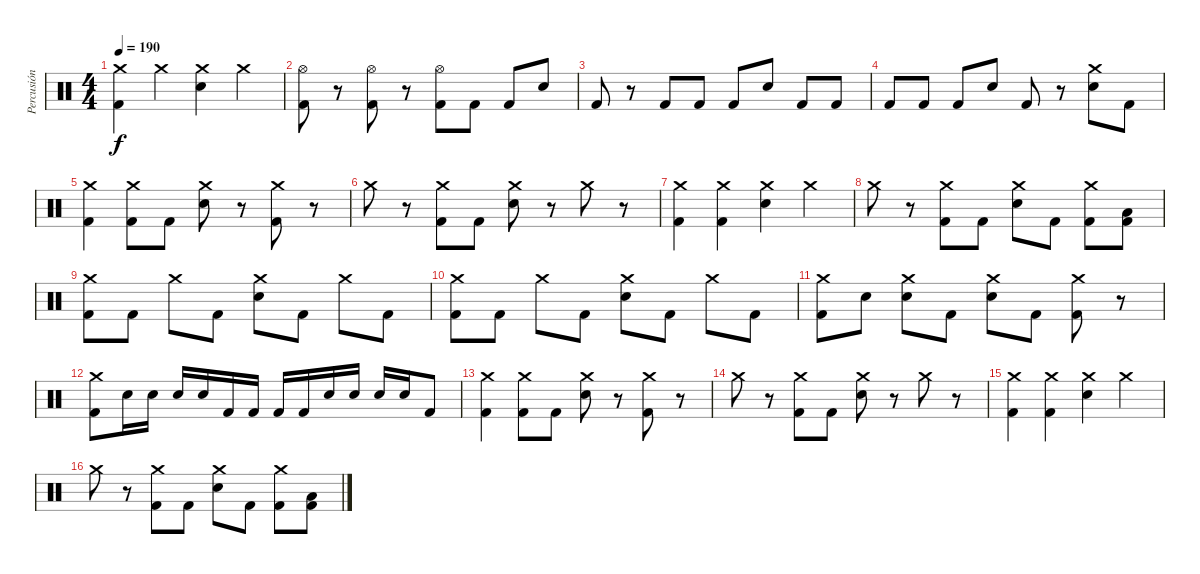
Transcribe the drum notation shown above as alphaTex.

\track ("Percusión" "Percusión") {instrument percussion}
\staff {score}
\articulation defaults
\ts (4 4)
\tempo 190
\clef neutral
\ks c
("Crash medium (hit)" "Kick (hit) 2").4{dy f} "Crash medium (hit)".4 ("Crash medium (hit)" "Electric Snare (hit)").4 "Crash medium (hit)".4 |
("Hi-Hat (open)" "Kick (hit) 2").8 r.8 ("Hi-Hat (open)" "Kick (hit) 2").8 r.8 ("Hi-Hat (open)" "Kick (hit) 2").8 "Kick (hit) 2".8 "Kick (hit) 2".8 "Electric Snare (hit)".8 |
"Kick (hit) 2".8 r.8 "Kick (hit) 2".8 "Kick (hit) 2".8 "Kick (hit) 2".8 "Electric Snare (hit)".8 "Kick (hit) 2".8 "Kick (hit) 2".8 |
"Kick (hit) 2".8 "Kick (hit) 2".8 "Kick (hit) 2".8 "Electric Snare (hit)".8 "Kick (hit) 2".8 r.8 ("Crash medium (hit)" "Electric Snare (hit)").8 "Kick (hit) 2".8 |
("Crash medium (hit)" "Kick (hit) 2").4 ("Crash medium (hit)" "Kick (hit) 2").8 "Kick (hit) 2".8 ("Crash medium (hit)" "Electric Snare (hit)").8 r.8 ("Crash medium (hit)" "Kick (hit) 2").8 r.8 |
"Crash medium (hit)".8 r.8 ("Crash medium (hit)" "Kick (hit) 2").8 "Kick (hit) 2".8 ("Crash medium (hit)" "Electric Snare (hit)").8 r.8 "Crash medium (hit)".8 r.8 |
("Crash medium (hit)" "Kick (hit) 2").4 ("Crash medium (hit)" "Kick (hit) 2").4 ("Crash medium (hit)" "Electric Snare (hit)").4 "Crash medium (hit)".4 |
"Crash medium (hit)".8 r.8 ("Crash medium (hit)" "Kick (hit) 2").8 "Kick (hit) 2".8 ("Crash medium (hit)" "Electric Snare (hit)").8 "Kick (hit) 2".8 ("Crash medium (hit)" "Kick (hit) 2").8 ("Low Floor Tom (hit)" "Kick (hit) 2").8 |
("Crash medium (hit)" "Kick (hit) 2").8 "Kick (hit) 2".8 "Crash medium (hit)".8 "Kick (hit) 2".8 ("Crash medium (hit)" "Electric Snare (hit)").8 "Kick (hit) 2".8 "Crash medium (hit)".8 "Kick (hit) 2".8 |
("Crash medium (hit)" "Kick (hit) 2").8 "Kick (hit) 2".8 "Crash medium (hit)".8 "Kick (hit) 2".8 ("Crash medium (hit)" "Electric Snare (hit)").8 "Kick (hit) 2".8 "Crash medium (hit)".8 "Kick (hit) 2".8 |
("Crash medium (hit)" "Kick (hit) 2").8 "Electric Snare (hit)".8 ("Crash medium (hit)" "Electric Snare (hit)").8 "Kick (hit) 2".8 ("Crash medium (hit)" "Electric Snare (hit)").8 "Kick (hit) 2".8 ("Crash medium (hit)" "Kick (hit) 2").8 r.8 |
("Crash medium (hit)" "Kick (hit) 2").8 "Electric Snare (hit)".16 "Electric Snare (hit)".16 "Electric Snare (hit)".16 "Electric Snare (hit)".16 "Kick (hit) 2".16 "Kick (hit) 2".16 "Kick (hit) 2".16 "Kick (hit) 2".16 "Electric Snare (hit)".16 "Electric Snare (hit)".16 "Electric Snare (hit)".16 "Electric Snare (hit)".16 "Kick (hit) 2".8 |
("Crash medium (hit)" "Kick (hit) 2").4 ("Crash medium (hit)" "Kick (hit) 2").8 "Kick (hit) 2".8 ("Crash medium (hit)" "Electric Snare (hit)").8 r.8 ("Crash medium (hit)" "Kick (hit) 2").8 r.8 |
"Crash medium (hit)".8 r.8 ("Crash medium (hit)" "Kick (hit) 2").8 "Kick (hit) 2".8 ("Crash medium (hit)" "Electric Snare (hit)").8 r.8 "Crash medium (hit)".8 r.8 |
("Crash medium (hit)" "Kick (hit) 2").4 ("Crash medium (hit)" "Kick (hit) 2").4 ("Crash medium (hit)" "Electric Snare (hit)").4 "Crash medium (hit)".4 |
"Crash medium (hit)".8 r.8 ("Crash medium (hit)" "Kick (hit) 2").8 "Kick (hit) 2".8 ("Crash medium (hit)" "Electric Snare (hit)").8 "Kick (hit) 2".8 ("Crash medium (hit)" "Kick (hit) 2").8 ("Low Floor Tom (hit)" "Kick (hit) 2").8
